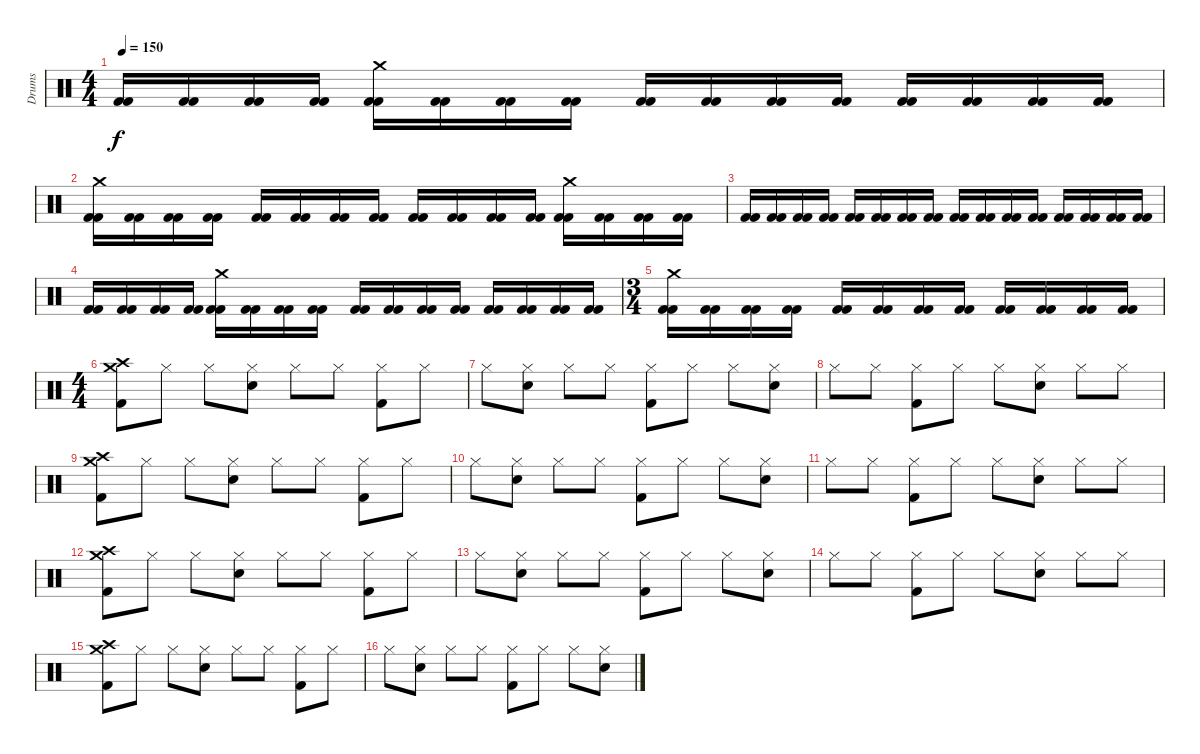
\track ("Drums" "Drums") {instrument percussion}
\staff {score}
\articulation defaults
\ts (4 4)
\tempo 150
\clef neutral
\ks c
("Kick (hit) 2" "Kick (hit) 2").16{dy f} ("Kick (hit) 2" "Kick (hit) 2").16 ("Kick (hit) 2" "Kick (hit) 2").16 ("Kick (hit) 2" "Kick (hit) 2").16 ("Kick (hit) 2" "Crash medium (hit)" "Kick (hit) 2").16 ("Kick (hit) 2" "Kick (hit) 2").16 ("Kick (hit) 2" "Kick (hit) 2").16 ("Kick (hit) 2" "Kick (hit) 2").16 ("Kick (hit) 2" "Kick (hit) 2").16 ("Kick (hit) 2" "Kick (hit) 2").16 ("Kick (hit) 2" "Kick (hit) 2").16 ("Kick (hit) 2" "Kick (hit) 2").16 ("Kick (hit) 2" "Kick (hit) 2").16 ("Kick (hit) 2" "Kick (hit) 2").16 ("Kick (hit) 2" "Kick (hit) 2").16 ("Kick (hit) 2" "Kick (hit) 2").16 |
("Kick (hit) 2" "Crash medium (hit)" "Kick (hit) 2").16 ("Kick (hit) 2" "Kick (hit) 2").16 ("Kick (hit) 2" "Kick (hit) 2").16 ("Kick (hit) 2" "Kick (hit) 2").16 ("Kick (hit) 2" "Kick (hit) 2").16 ("Kick (hit) 2" "Kick (hit) 2").16 ("Kick (hit) 2" "Kick (hit) 2").16 ("Kick (hit) 2" "Kick (hit) 2").16 ("Kick (hit) 2" "Kick (hit) 2").16 ("Kick (hit) 2" "Kick (hit) 2").16 ("Kick (hit) 2" "Kick (hit) 2").16 ("Kick (hit) 2" "Kick (hit) 2").16 ("Kick (hit) 2" "Crash medium (hit)" "Kick (hit) 2").16 ("Kick (hit) 2" "Kick (hit) 2").16 ("Kick (hit) 2" "Kick (hit) 2").16 ("Kick (hit) 2" "Kick (hit) 2").16 |
("Kick (hit) 2" "Kick (hit) 2").16 ("Kick (hit) 2" "Kick (hit) 2").16 ("Kick (hit) 2" "Kick (hit) 2").16 ("Kick (hit) 2" "Kick (hit) 2").16 ("Kick (hit) 2" "Kick (hit) 2").16 ("Kick (hit) 2" "Kick (hit) 2").16 ("Kick (hit) 2" "Kick (hit) 2").16 ("Kick (hit) 2" "Kick (hit) 2").16 ("Kick (hit) 2" "Kick (hit) 2").16 ("Kick (hit) 2" "Kick (hit) 2").16 ("Kick (hit) 2" "Kick (hit) 2").16 ("Kick (hit) 2" "Kick (hit) 2").16 ("Kick (hit) 2" "Kick (hit) 2").16 ("Kick (hit) 2" "Kick (hit) 2").16 ("Kick (hit) 2" "Kick (hit) 2").16 ("Kick (hit) 2" "Kick (hit) 2").16 |
("Kick (hit) 2" "Kick (hit) 2").16 ("Kick (hit) 2" "Kick (hit) 2").16 ("Kick (hit) 2" "Kick (hit) 2").16 ("Kick (hit) 2" "Kick (hit) 2").16 ("Kick (hit) 2" "Crash medium (hit)" "Kick (hit) 2").16 ("Kick (hit) 2" "Kick (hit) 2").16 ("Kick (hit) 2" "Kick (hit) 2").16 ("Kick (hit) 2" "Kick (hit) 2").16 ("Kick (hit) 2" "Kick (hit) 2").16 ("Kick (hit) 2" "Kick (hit) 2").16 ("Kick (hit) 2" "Kick (hit) 2").16 ("Kick (hit) 2" "Kick (hit) 2").16 ("Kick (hit) 2" "Kick (hit) 2").16 ("Kick (hit) 2" "Kick (hit) 2").16 ("Kick (hit) 2" "Kick (hit) 2").16 ("Kick (hit) 2" "Kick (hit) 2").16 |
\ts (3 4)
("Kick (hit) 2" "Crash medium (hit)" "Kick (hit) 2").16 ("Kick (hit) 2" "Kick (hit) 2").16 ("Kick (hit) 2" "Kick (hit) 2").16 ("Kick (hit) 2" "Kick (hit) 2").16 ("Kick (hit) 2" "Kick (hit) 2").16 ("Kick (hit) 2" "Kick (hit) 2").16 ("Kick (hit) 2" "Kick (hit) 2").16 ("Kick (hit) 2" "Kick (hit) 2").16 ("Kick (hit) 2" "Kick (hit) 2").16 ("Kick (hit) 2" "Kick (hit) 2").16 ("Kick (hit) 2" "Kick (hit) 2").16 ("Kick (hit) 2" "Kick (hit) 2").16 |
\ts (4 4)
("Crash high (hit)" "Crash medium (hit)" "Kick (hit) 2").8 "Hi-Hat (closed)".8 "Hi-Hat (closed)".8 ("Hi-Hat (closed)" "Electric Snare (hit)").8 "Hi-Hat (closed)".8 "Hi-Hat (closed)".8 ("Hi-Hat (closed)" "Kick (hit) 2").8 "Hi-Hat (closed)".8 |
"Hi-Hat (closed)".8 ("Hi-Hat (closed)" "Electric Snare (hit)").8 "Hi-Hat (closed)".8 "Hi-Hat (closed)".8 ("Hi-Hat (closed)" "Kick (hit) 2").8 "Hi-Hat (closed)".8 "Hi-Hat (closed)".8 ("Hi-Hat (closed)" "Electric Snare (hit)").8 |
"Hi-Hat (closed)".8 "Hi-Hat (closed)".8 ("Hi-Hat (closed)" "Kick (hit) 2").8 "Hi-Hat (closed)".8 "Hi-Hat (closed)".8 ("Hi-Hat (closed)" "Electric Snare (hit)").8 "Hi-Hat (closed)".8 "Hi-Hat (closed)".8 |
("Crash high (hit)" "Crash medium (hit)" "Kick (hit) 2").8 "Hi-Hat (closed)".8 "Hi-Hat (closed)".8 ("Hi-Hat (closed)" "Electric Snare (hit)").8 "Hi-Hat (closed)".8 "Hi-Hat (closed)".8 ("Hi-Hat (closed)" "Kick (hit) 2").8 "Hi-Hat (closed)".8 |
"Hi-Hat (closed)".8 ("Hi-Hat (closed)" "Electric Snare (hit)").8 "Hi-Hat (closed)".8 "Hi-Hat (closed)".8 ("Hi-Hat (closed)" "Kick (hit) 2").8 "Hi-Hat (closed)".8 "Hi-Hat (closed)".8 ("Hi-Hat (closed)" "Electric Snare (hit)").8 |
"Hi-Hat (closed)".8 "Hi-Hat (closed)".8 ("Hi-Hat (closed)" "Kick (hit) 2").8 "Hi-Hat (closed)".8 "Hi-Hat (closed)".8 ("Hi-Hat (closed)" "Electric Snare (hit)").8 "Hi-Hat (closed)".8 "Hi-Hat (closed)".8 |
("Crash high (hit)" "Crash medium (hit)" "Kick (hit) 2").8 "Hi-Hat (closed)".8 "Hi-Hat (closed)".8 ("Hi-Hat (closed)" "Electric Snare (hit)").8 "Hi-Hat (closed)".8 "Hi-Hat (closed)".8 ("Hi-Hat (closed)" "Kick (hit) 2").8 "Hi-Hat (closed)".8 |
"Hi-Hat (closed)".8 ("Hi-Hat (closed)" "Electric Snare (hit)").8 "Hi-Hat (closed)".8 "Hi-Hat (closed)".8 ("Hi-Hat (closed)" "Kick (hit) 2").8 "Hi-Hat (closed)".8 "Hi-Hat (closed)".8 ("Hi-Hat (closed)" "Electric Snare (hit)").8 |
"Hi-Hat (closed)".8 "Hi-Hat (closed)".8 ("Hi-Hat (closed)" "Kick (hit) 2").8 "Hi-Hat (closed)".8 "Hi-Hat (closed)".8 ("Hi-Hat (closed)" "Electric Snare (hit)").8 "Hi-Hat (closed)".8 "Hi-Hat (closed)".8 |
("Crash high (hit)" "Crash medium (hit)" "Kick (hit) 2").8 "Hi-Hat (closed)".8 "Hi-Hat (closed)".8 ("Hi-Hat (closed)" "Electric Snare (hit)").8 "Hi-Hat (closed)".8 "Hi-Hat (closed)".8 ("Hi-Hat (closed)" "Kick (hit) 2").8 "Hi-Hat (closed)".8 |
"Hi-Hat (closed)".8 ("Hi-Hat (closed)" "Electric Snare (hit)").8 "Hi-Hat (closed)".8 "Hi-Hat (closed)".8 ("Hi-Hat (closed)" "Kick (hit) 2").8 "Hi-Hat (closed)".8 "Hi-Hat (closed)".8 ("Hi-Hat (closed)" "Electric Snare (hit)").8
